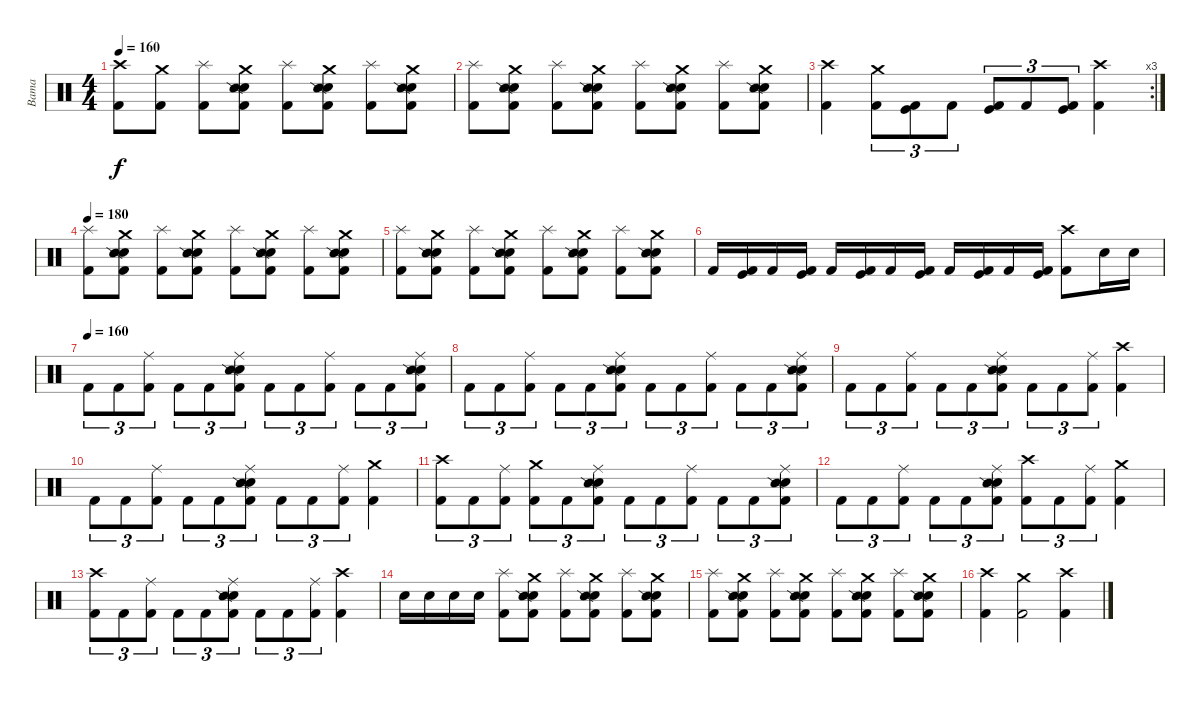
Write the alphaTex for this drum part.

\track ("Bama" "Bama") {instrument percussion}
\staff {score}
\articulation defaults
\ts (4 4)
\tempo 160
\clef neutral
\ks c
("Crash high (hit)" "Kick (hit) 2").8{dy f} ("Crash medium (hit)" "Kick (hit) 2").8 ("Splash (hit)" "Kick (hit) 2").8 ("Crash medium (hit)" "Electric Snare (hit)" "Snare (side stick) 2" "Kick (hit) 2").8 ("Splash (hit)" "Kick (hit) 2").8 ("Crash medium (hit)" "Electric Snare (hit)" "Snare (side stick) 2" "Kick (hit) 2").8 ("Splash (hit)" "Kick (hit) 2").8 ("Crash medium (hit)" "Electric Snare (hit)" "Snare (side stick) 2" "Kick (hit) 2").8 |
("Splash (hit)" "Kick (hit) 2").8 ("Crash medium (hit)" "Electric Snare (hit)" "Snare (side stick) 2" "Kick (hit) 2").8 ("Splash (hit)" "Kick (hit) 2").8 ("Crash medium (hit)" "Electric Snare (hit)" "Snare (side stick) 2" "Kick (hit) 2").8 ("Splash (hit)" "Kick (hit) 2").8 ("Crash medium (hit)" "Electric Snare (hit)" "Snare (side stick) 2" "Kick (hit) 2").8 ("Splash (hit)" "Kick (hit) 2").8 ("Crash medium (hit)" "Electric Snare (hit)" "Snare (side stick) 2" "Kick (hit) 2").8 |
\rc 3
("Crash high (hit)" "Kick (hit) 2").4 ("Crash medium (hit)" "Kick (hit) 2").8{tu (3 2)} ("Kick (hit)" "Kick (hit) 2").8{tu (3 2)} "Kick (hit) 2".8{tu (3 2)} ("Kick (hit)" "Kick (hit) 2").8{tu (3 2)} "Kick (hit) 2".8{tu (3 2)} ("Kick (hit)" "Kick (hit) 2").8{tu (3 2)} ("Crash high (hit)" "Kick (hit) 2").4 |
\tempo 180
("Splash (hit)" "Kick (hit) 2").8 ("Crash medium (hit)" "Electric Snare (hit)" "Snare (side stick) 2" "Kick (hit) 2").8 ("Splash (hit)" "Kick (hit) 2").8 ("Crash medium (hit)" "Electric Snare (hit)" "Snare (side stick) 2" "Kick (hit) 2").8 ("Splash (hit)" "Kick (hit) 2").8 ("Crash medium (hit)" "Electric Snare (hit)" "Snare (side stick) 2" "Kick (hit) 2").8 ("Splash (hit)" "Kick (hit) 2").8 ("Crash medium (hit)" "Electric Snare (hit)" "Snare (side stick) 2" "Kick (hit) 2").8 |
("Splash (hit)" "Kick (hit) 2").8 ("Crash medium (hit)" "Electric Snare (hit)" "Snare (side stick) 2" "Kick (hit) 2").8 ("Splash (hit)" "Kick (hit) 2").8 ("Crash medium (hit)" "Electric Snare (hit)" "Snare (side stick) 2" "Kick (hit) 2").8 ("Splash (hit)" "Kick (hit) 2").8 ("Crash medium (hit)" "Electric Snare (hit)" "Snare (side stick) 2" "Kick (hit) 2").8 ("Splash (hit)" "Kick (hit) 2").8 ("Crash medium (hit)" "Electric Snare (hit)" "Snare (side stick) 2" "Kick (hit) 2").8 |
"Kick (hit) 2".16 ("Kick (hit)" "Kick (hit) 2").16 "Kick (hit) 2".16 ("Kick (hit)" "Kick (hit) 2").16 "Kick (hit) 2".16 ("Kick (hit)" "Kick (hit) 2").16 "Kick (hit) 2".16 ("Kick (hit)" "Kick (hit) 2").16 "Kick (hit) 2".16 ("Kick (hit)" "Kick (hit) 2").16 "Kick (hit) 2".16 ("Kick (hit)" "Kick (hit) 2").16 ("Crash high (hit)" "Kick (hit) 2").8 "Electric Snare (hit)".16 "Electric Snare (hit)".16 |
\tempo (160)
"Kick (hit) 2".8{tu (3 2)} "Kick (hit) 2".8{tu (3 2)} ("Ride (middle)" "Kick (hit) 2").8{tu (3 2)} "Kick (hit) 2".8{tu (3 2)} "Kick (hit) 2".8{tu (3 2)} ("Ride (middle)" "Electric Snare (hit)" "Snare (side stick) 2" "Kick (hit) 2").8{tu (3 2)} "Kick (hit) 2".8{tu (3 2)} "Kick (hit) 2".8{tu (3 2)} ("Ride (middle)" "Kick (hit) 2").8{tu (3 2)} "Kick (hit) 2".8{tu (3 2)} "Kick (hit) 2".8{tu (3 2)} ("Ride (middle)" "Electric Snare (hit)" "Snare (side stick) 2" "Kick (hit) 2").8{tu (3 2)} |
"Kick (hit) 2".8{tu (3 2)} "Kick (hit) 2".8{tu (3 2)} ("Ride (middle)" "Kick (hit) 2").8{tu (3 2)} "Kick (hit) 2".8{tu (3 2)} "Kick (hit) 2".8{tu (3 2)} ("Ride (middle)" "Electric Snare (hit)" "Snare (side stick) 2" "Kick (hit) 2").8{tu (3 2)} "Kick (hit) 2".8{tu (3 2)} "Kick (hit) 2".8{tu (3 2)} ("Ride (middle)" "Kick (hit) 2").8{tu (3 2)} "Kick (hit) 2".8{tu (3 2)} "Kick (hit) 2".8{tu (3 2)} ("Ride (middle)" "Electric Snare (hit)" "Snare (side stick) 2" "Kick (hit) 2").8{tu (3 2)} |
"Kick (hit) 2".8{tu (3 2)} "Kick (hit) 2".8{tu (3 2)} ("Ride (middle)" "Kick (hit) 2").8{tu (3 2)} "Kick (hit) 2".8{tu (3 2)} "Kick (hit) 2".8{tu (3 2)} ("Ride (middle)" "Electric Snare (hit)" "Snare (side stick) 2" "Kick (hit) 2").8{tu (3 2)} "Kick (hit) 2".8{tu (3 2)} "Kick (hit) 2".8{tu (3 2)} ("Ride (middle)" "Kick (hit) 2").8{tu (3 2)} ("Crash high (hit)" "Kick (hit) 2").4 |
"Kick (hit) 2".8{tu (3 2)} "Kick (hit) 2".8{tu (3 2)} ("Ride (middle)" "Kick (hit) 2").8{tu (3 2)} "Kick (hit) 2".8{tu (3 2)} "Kick (hit) 2".8{tu (3 2)} ("Ride (middle)" "Electric Snare (hit)" "Snare (side stick) 2" "Kick (hit) 2").8{tu (3 2)} "Kick (hit) 2".8{tu (3 2)} "Kick (hit) 2".8{tu (3 2)} ("Ride (middle)" "Kick (hit) 2").8{tu (3 2)} ("Crash medium (hit)" "Kick (hit) 2").4 |
("Crash high (hit)" "Kick (hit) 2").8{tu (3 2)} "Kick (hit) 2".8{tu (3 2)} ("Ride (middle)" "Kick (hit) 2").8{tu (3 2)} ("Crash medium (hit)" "Kick (hit) 2").8{tu (3 2)} "Kick (hit) 2".8{tu (3 2)} ("Ride (middle)" "Electric Snare (hit)" "Snare (side stick) 2" "Kick (hit) 2").8{tu (3 2)} "Kick (hit) 2".8{tu (3 2)} "Kick (hit) 2".8{tu (3 2)} ("Ride (middle)" "Kick (hit) 2").8{tu (3 2)} "Kick (hit) 2".8{tu (3 2)} "Kick (hit) 2".8{tu (3 2)} ("Ride (middle)" "Electric Snare (hit)" "Snare (side stick) 2" "Kick (hit) 2").8{tu (3 2)} |
"Kick (hit) 2".8{tu (3 2)} "Kick (hit) 2".8{tu (3 2)} ("Ride (middle)" "Kick (hit) 2").8{tu (3 2)} "Kick (hit) 2".8{tu (3 2)} "Kick (hit) 2".8{tu (3 2)} ("Ride (middle)" "Electric Snare (hit)" "Snare (side stick) 2" "Kick (hit) 2").8{tu (3 2)} ("Crash high (hit)" "Kick (hit) 2").8{tu (3 2)} "Kick (hit) 2".8{tu (3 2)} ("Ride (middle)" "Kick (hit) 2").8{tu (3 2)} ("Crash medium (hit)" "Kick (hit) 2").4 |
("Crash high (hit)" "Kick (hit) 2").8{tu (3 2)} "Kick (hit) 2".8{tu (3 2)} ("Ride (middle)" "Kick (hit) 2").8{tu (3 2)} "Kick (hit) 2".8{tu (3 2)} "Kick (hit) 2".8{tu (3 2)} ("Ride (middle)" "Electric Snare (hit)" "Snare (side stick) 2" "Kick (hit) 2").8{tu (3 2)} "Kick (hit) 2".8{tu (3 2)} "Kick (hit) 2".8{tu (3 2)} ("Ride (middle)" "Kick (hit) 2").8{tu (3 2)} ("Crash high (hit)" "Kick (hit) 2").4 |
"Electric Snare (hit)".16 "Electric Snare (hit)".16 "Electric Snare (hit)".16 "Electric Snare (hit)".16 ("Splash (hit)" "Kick (hit) 2").8 ("Crash medium (hit)" "Electric Snare (hit)" "Snare (side stick) 2" "Kick (hit) 2").8 ("Splash (hit)" "Kick (hit) 2").8 ("Crash medium (hit)" "Electric Snare (hit)" "Snare (side stick) 2" "Kick (hit) 2").8 ("Splash (hit)" "Kick (hit) 2").8 ("Crash medium (hit)" "Electric Snare (hit)" "Snare (side stick) 2" "Kick (hit) 2").8 |
("Splash (hit)" "Kick (hit) 2").8 ("Crash medium (hit)" "Electric Snare (hit)" "Snare (side stick) 2" "Kick (hit) 2").8 ("Splash (hit)" "Kick (hit) 2").8 ("Crash medium (hit)" "Electric Snare (hit)" "Snare (side stick) 2" "Kick (hit) 2").8 ("Splash (hit)" "Kick (hit) 2").8 ("Crash medium (hit)" "Electric Snare (hit)" "Snare (side stick) 2" "Kick (hit) 2").8 ("Splash (hit)" "Kick (hit) 2").8 ("Crash medium (hit)" "Electric Snare (hit)" "Snare (side stick) 2" "Kick (hit) 2").8 |
("Crash high (hit)" "Kick (hit) 2").4 ("Crash medium (hit)" "Kick (hit) 2").2 ("Crash high (hit)" "Kick (hit) 2").4
